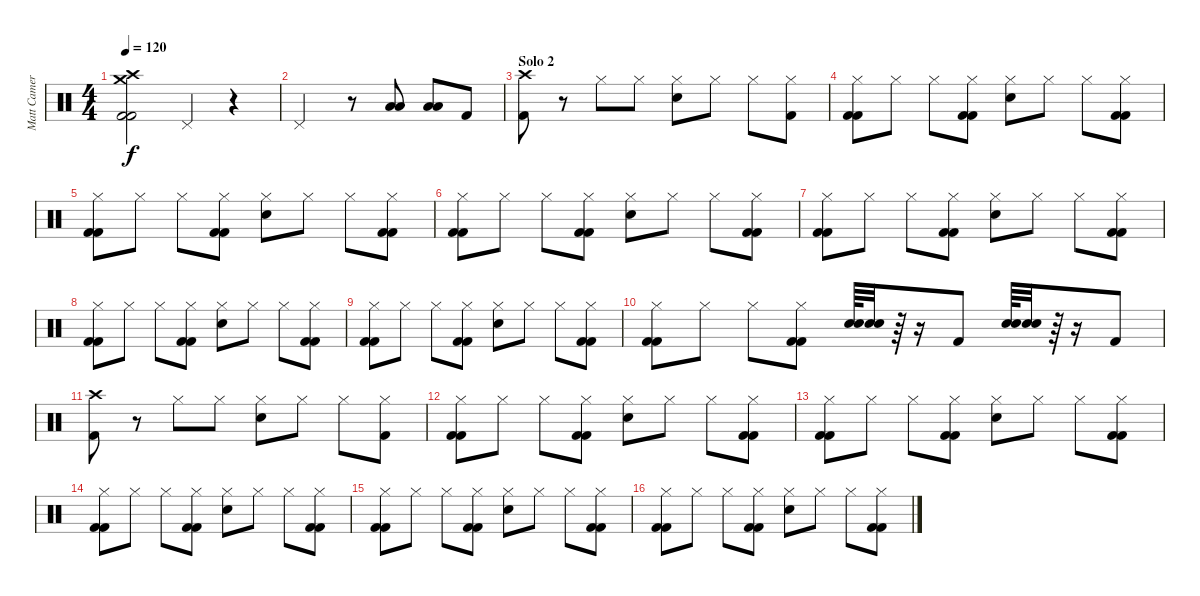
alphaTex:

\track ("Matt Cameron" "Matt Camer") {instrument percussion}
\staff {score}
\articulation defaults
\ts (4 4)
\tempo 120
\clef neutral
\ks c
("Crash high (hit)" "Crash medium (hit)" "Kick (hit) 2" "Kick (hit) 2").2{dy f} "Pedal Hi-Hat (hit)".4 r.4 |
"Pedal Hi-Hat (hit)".2 r.8 ("Low Tom (hit)" "Low Tom (hit)").8 ("Low Tom (hit)" "Low Tom (hit)").8 "Kick (hit) 2".8 |
\section ("" "Solo 2")
("Crash high (hit)" "Kick (hit) 2").8{volume 13} r.8 "Hi-Hat (closed)".8 "Hi-Hat (closed)".8 ("Hi-Hat (closed)" "Electric Snare (hit)").8 "Hi-Hat (closed)".8 "Hi-Hat (closed)".8 ("Hi-Hat (closed)" "Kick (hit) 2").8 |
("Hi-Hat (closed)" "Kick (hit) 2" "Kick (hit) 2").8 "Hi-Hat (closed)".8 "Hi-Hat (closed)".8 ("Hi-Hat (closed)" "Kick (hit) 2" "Kick (hit) 2").8 ("Hi-Hat (closed)" "Electric Snare (hit)").8 "Hi-Hat (closed)".8 "Hi-Hat (closed)".8 ("Hi-Hat (closed)" "Kick (hit) 2" "Kick (hit) 2").8 |
("Hi-Hat (closed)" "Kick (hit) 2" "Kick (hit) 2").8 "Hi-Hat (closed)".8 "Hi-Hat (closed)".8 ("Hi-Hat (closed)" "Kick (hit) 2" "Kick (hit) 2").8 ("Hi-Hat (closed)" "Electric Snare (hit)").8 "Hi-Hat (closed)".8 "Hi-Hat (closed)".8 ("Hi-Hat (closed)" "Kick (hit) 2" "Kick (hit) 2").8 |
("Hi-Hat (closed)" "Kick (hit) 2" "Kick (hit) 2").8 "Hi-Hat (closed)".8 "Hi-Hat (closed)".8 ("Hi-Hat (closed)" "Kick (hit) 2" "Kick (hit) 2").8 ("Hi-Hat (closed)" "Electric Snare (hit)").8 "Hi-Hat (closed)".8 "Hi-Hat (closed)".8 ("Hi-Hat (closed)" "Kick (hit) 2" "Kick (hit) 2").8 |
("Hi-Hat (closed)" "Kick (hit) 2" "Kick (hit) 2").8 "Hi-Hat (closed)".8 "Hi-Hat (closed)".8 ("Hi-Hat (closed)" "Kick (hit) 2" "Kick (hit) 2").8 ("Hi-Hat (closed)" "Electric Snare (hit)").8 "Hi-Hat (closed)".8 "Hi-Hat (closed)".8 ("Hi-Hat (closed)" "Kick (hit) 2" "Kick (hit) 2").8 |
("Hi-Hat (closed)" "Kick (hit) 2" "Kick (hit) 2").8 "Hi-Hat (closed)".8 "Hi-Hat (closed)".8 ("Hi-Hat (closed)" "Kick (hit) 2" "Kick (hit) 2").8 ("Hi-Hat (closed)" "Electric Snare (hit)").8 "Hi-Hat (closed)".8 "Hi-Hat (closed)".8 ("Hi-Hat (closed)" "Kick (hit) 2" "Kick (hit) 2").8 |
("Hi-Hat (closed)" "Kick (hit) 2" "Kick (hit) 2").8 "Hi-Hat (closed)".8 "Hi-Hat (closed)".8 ("Hi-Hat (closed)" "Kick (hit) 2" "Kick (hit) 2").8 ("Hi-Hat (closed)" "Electric Snare (hit)").8 "Hi-Hat (closed)".8 "Hi-Hat (closed)".8 ("Hi-Hat (closed)" "Kick (hit) 2" "Kick (hit) 2").8 |
("Hi-Hat (closed)" "Kick (hit) 2" "Kick (hit) 2").8 "Hi-Hat (closed)".8 "Hi-Hat (closed)".8 ("Hi-Hat (closed)" "Kick (hit) 2" "Kick (hit) 2").8 ("Electric Snare (hit)" "Electric Snare (hit)").64 ("Electric Snare (hit)" "Electric Snare (hit)").32 r.64 r.16 "Kick (hit) 2".8 ("Electric Snare (hit)" "Electric Snare (hit)").64 ("Electric Snare (hit)" "Electric Snare (hit)").32 r.64 r.16 "Kick (hit) 2".8 |
("Crash high (hit)" "Kick (hit) 2").8 r.8 "Hi-Hat (closed)".8 "Hi-Hat (closed)".8 ("Hi-Hat (closed)" "Electric Snare (hit)").8 "Hi-Hat (closed)".8 "Hi-Hat (closed)".8 ("Hi-Hat (closed)" "Kick (hit) 2").8 |
("Hi-Hat (closed)" "Kick (hit) 2" "Kick (hit) 2").8 "Hi-Hat (closed)".8 "Hi-Hat (closed)".8 ("Hi-Hat (closed)" "Kick (hit) 2" "Kick (hit) 2").8 ("Hi-Hat (closed)" "Electric Snare (hit)").8 "Hi-Hat (closed)".8 "Hi-Hat (closed)".8 ("Hi-Hat (closed)" "Kick (hit) 2" "Kick (hit) 2").8 |
("Hi-Hat (closed)" "Kick (hit) 2" "Kick (hit) 2").8 "Hi-Hat (closed)".8 "Hi-Hat (closed)".8 ("Hi-Hat (closed)" "Kick (hit) 2" "Kick (hit) 2").8 ("Hi-Hat (closed)" "Electric Snare (hit)").8 "Hi-Hat (closed)".8 "Hi-Hat (closed)".8 ("Hi-Hat (closed)" "Kick (hit) 2" "Kick (hit) 2").8 |
("Hi-Hat (closed)" "Kick (hit) 2" "Kick (hit) 2").8 "Hi-Hat (closed)".8 "Hi-Hat (closed)".8 ("Hi-Hat (closed)" "Kick (hit) 2" "Kick (hit) 2").8 ("Hi-Hat (closed)" "Electric Snare (hit)").8 "Hi-Hat (closed)".8 "Hi-Hat (closed)".8 ("Hi-Hat (closed)" "Kick (hit) 2" "Kick (hit) 2").8 |
("Hi-Hat (closed)" "Kick (hit) 2" "Kick (hit) 2").8 "Hi-Hat (closed)".8 "Hi-Hat (closed)".8 ("Hi-Hat (closed)" "Kick (hit) 2" "Kick (hit) 2").8 ("Hi-Hat (closed)" "Electric Snare (hit)").8 "Hi-Hat (closed)".8 "Hi-Hat (closed)".8 ("Hi-Hat (closed)" "Kick (hit) 2" "Kick (hit) 2").8 |
("Hi-Hat (closed)" "Kick (hit) 2" "Kick (hit) 2").8 "Hi-Hat (closed)".8 "Hi-Hat (closed)".8 ("Hi-Hat (closed)" "Kick (hit) 2" "Kick (hit) 2").8 ("Hi-Hat (closed)" "Electric Snare (hit)").8 "Hi-Hat (closed)".8 "Hi-Hat (closed)".8 ("Hi-Hat (closed)" "Kick (hit) 2" "Kick (hit) 2").8
